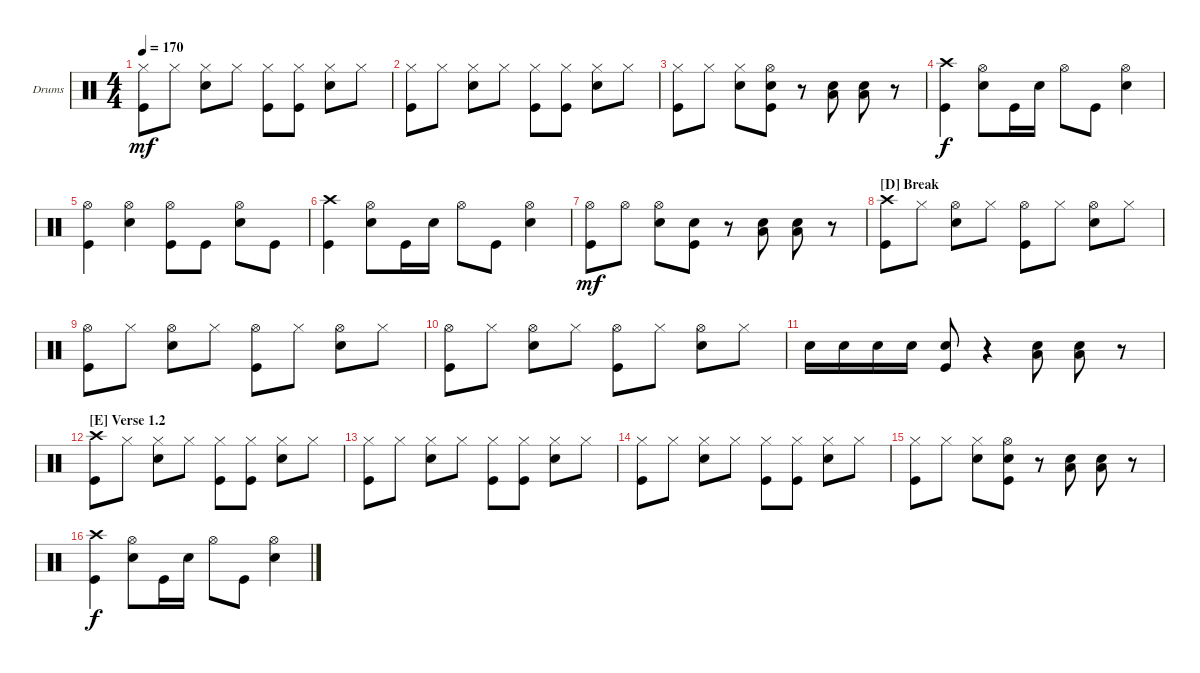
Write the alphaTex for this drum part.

\defaultSystemsLayout 4
\bracketExtendMode groupsimilarinstruments
\firstSystemTrackNameOrientation horizontal
\otherSystemsTrackNameOrientation horizontal
\track ("Drumkit" "Drums") {instrument percussion}
\staff {score}
\articulation defaults
\ts (4 4)
\tempo 170
\clef neutral
\ks c
("Kick (hit)" "Hi-Hat (closed)").8{dy mf} "Hi-Hat (closed)".8 ("Hi-Hat (closed)" "Snare (hit) 2").8 "Hi-Hat (closed)".8 ("Hi-Hat (closed)" "Kick (hit)").8 ("Hi-Hat (closed)" "Kick (hit)").8 ("Hi-Hat (closed)" "Snare (hit) 2").8 "Hi-Hat (closed)".8 |
("Kick (hit)" "Hi-Hat (closed)").8 "Hi-Hat (closed)".8 ("Hi-Hat (closed)" "Snare (hit) 2").8 "Hi-Hat (closed)".8 ("Hi-Hat (closed)" "Kick (hit)").8 ("Hi-Hat (closed)" "Kick (hit)").8 ("Hi-Hat (closed)" "Snare (hit) 2").8 "Hi-Hat (closed)".8 |
("Kick (hit)" "Hi-Hat (closed)").8 "Hi-Hat (closed)".8 ("Hi-Hat (closed)" "Snare (hit) 2").8 ("Snare (hit) 2" "Kick (hit)" "Hi-Hat (open)").8 r.8 ("Snare (hit) 2" "Low Tom (hit)").8 ("Snare (hit) 2" "Low Tom (hit)").8 r.8 |
("Crash high (hit)" "Kick (hit)").4{dy f} ("Hi-Hat (open)" "Snare (hit) 2").8 "Kick (hit)".16 "Snare (hit) 2".16 "Hi-Hat (open)".8 "Kick (hit)".8 ("Hi-Hat (open)" "Snare (hit) 2").4 |
("Hi-Hat (open)" "Kick (hit)").4 ("Hi-Hat (open)" "Snare (hit) 2").4 ("Hi-Hat (open)" "Kick (hit)").8 "Kick (hit)".8 ("Hi-Hat (open)" "Snare (hit) 2").8 "Kick (hit)".8 |
("Crash high (hit)" "Kick (hit)").4 ("Hi-Hat (open)" "Snare (hit) 2").8 "Kick (hit)".16 "Snare (hit) 2".16 "Hi-Hat (open)".8 "Kick (hit)".8 ("Hi-Hat (open)" "Snare (hit) 2").4 |
("Kick (hit)" "Hi-Hat (open)").8{dy mf} "Hi-Hat (open)".8 ("Hi-Hat (open)" "Snare (hit) 2").8 ("Snare (hit) 2" "Kick (hit)").8 r.8 ("Snare (hit) 2" "Low Tom (hit)").8 ("Snare (hit) 2" "Low Tom (hit)").8 r.8 |
\section ("D" "Break")
("Crash high (hit)" "Kick (hit)").8 "Hi-Hat (closed)".8 ("Hi-Hat (open)" "Snare (hit) 2").8 "Hi-Hat (closed)".8 ("Kick (hit)" "Hi-Hat (open)").8 "Hi-Hat (closed)".8 ("Hi-Hat (open)" "Snare (hit) 2").8 "Hi-Hat (closed)".8 |
("Kick (hit)" "Hi-Hat (open)").8 "Hi-Hat (closed)".8 ("Hi-Hat (open)" "Snare (hit) 2").8 "Hi-Hat (closed)".8 ("Hi-Hat (open)" "Kick (hit)").8 "Hi-Hat (closed)".8 ("Hi-Hat (open)" "Snare (hit) 2").8 "Hi-Hat (closed)".8 |
("Kick (hit)" "Hi-Hat (open)").8 "Hi-Hat (closed)".8 ("Hi-Hat (open)" "Snare (hit) 2").8 "Hi-Hat (closed)".8 ("Hi-Hat (open)" "Kick (hit)").8 "Hi-Hat (closed)".8 ("Hi-Hat (open)" "Snare (hit) 2").8 "Hi-Hat (closed)".8 |
"Snare (hit) 2".16 "Snare (hit) 2".16 "Snare (hit) 2".16 "Snare (hit) 2".16 ("Snare (hit) 2" "Kick (hit)").8 r.4 ("Snare (hit) 2" "Low Tom (hit)").8 ("Snare (hit) 2" "Low Tom (hit)").8 r.8 |
\section ("E" "Verse 1.2")
("Kick (hit)" "Crash high (hit)").8 "Hi-Hat (closed)".8 ("Hi-Hat (closed)" "Snare (hit) 2").8 "Hi-Hat (closed)".8 ("Hi-Hat (closed)" "Kick (hit)").8 ("Hi-Hat (closed)" "Kick (hit)").8 ("Hi-Hat (closed)" "Snare (hit) 2").8 "Hi-Hat (closed)".8 |
("Kick (hit)" "Hi-Hat (closed)").8 "Hi-Hat (closed)".8 ("Hi-Hat (closed)" "Snare (hit) 2").8 "Hi-Hat (closed)".8 ("Hi-Hat (closed)" "Kick (hit)").8 ("Hi-Hat (closed)" "Kick (hit)").8 ("Hi-Hat (closed)" "Snare (hit) 2").8 "Hi-Hat (closed)".8 |
("Kick (hit)" "Hi-Hat (closed)").8 "Hi-Hat (closed)".8 ("Hi-Hat (closed)" "Snare (hit) 2").8 "Hi-Hat (closed)".8 ("Hi-Hat (closed)" "Kick (hit)").8 ("Hi-Hat (closed)" "Kick (hit)").8 ("Hi-Hat (closed)" "Snare (hit) 2").8 "Hi-Hat (closed)".8 |
("Kick (hit)" "Hi-Hat (closed)").8 "Hi-Hat (closed)".8 ("Hi-Hat (closed)" "Snare (hit) 2").8 ("Snare (hit) 2" "Kick (hit)" "Hi-Hat (open)").8 r.8 ("Snare (hit) 2" "Low Tom (hit)").8 ("Snare (hit) 2" "Low Tom (hit)").8 r.8 |
("Crash high (hit)" "Kick (hit)").4{dy f} ("Hi-Hat (open)" "Snare (hit) 2").8 "Kick (hit)".16 "Snare (hit) 2".16 "Hi-Hat (open)".8 "Kick (hit)".8 ("Hi-Hat (open)" "Snare (hit) 2").4
